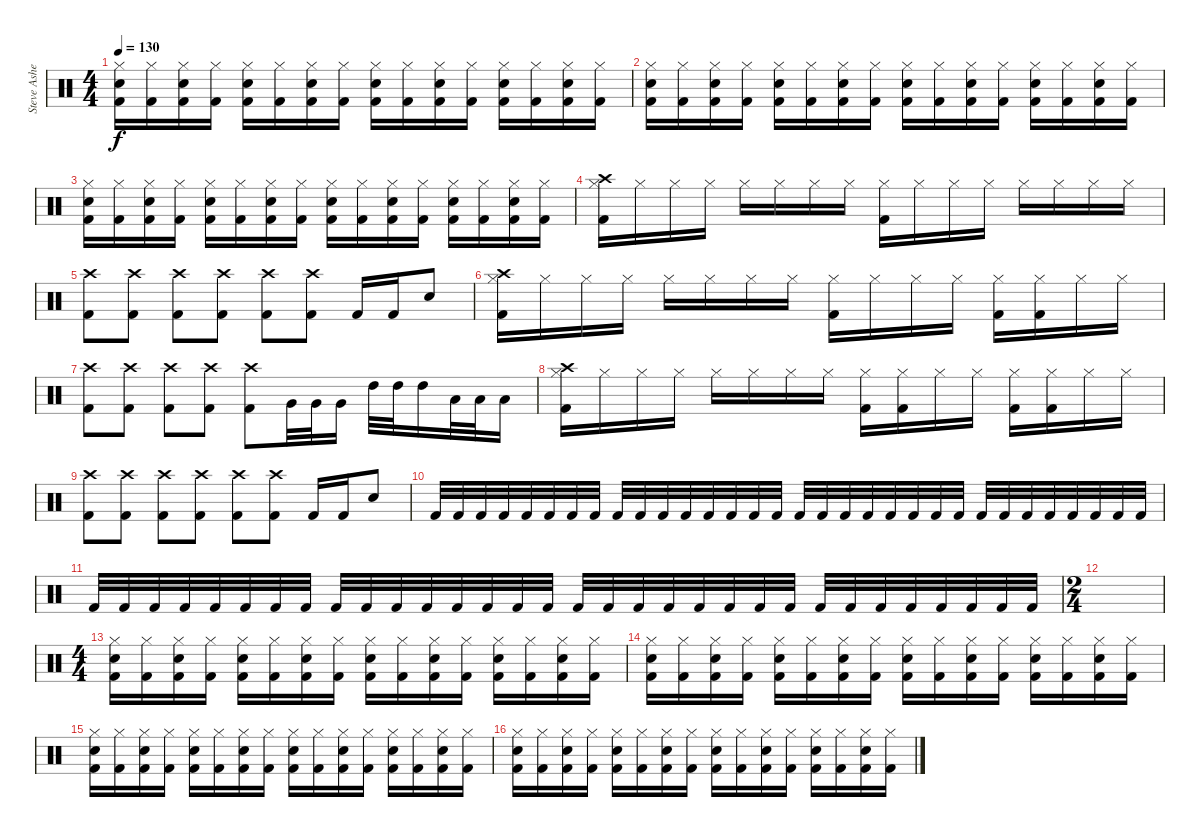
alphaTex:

\track ("Steve Asheim" "Steve Ashe") {instrument percussion}
\staff {score}
\articulation defaults
\ts (4 4)
\tempo 130
\clef neutral
\ks c
("Kick (hit) 2" "Electric Snare (hit)" "Hi-Hat (closed)").16{dy f} ("Kick (hit) 2" "Hi-Hat (closed)").16 ("Kick (hit) 2" "Electric Snare (hit)" "Hi-Hat (closed)").16 ("Kick (hit) 2" "Hi-Hat (closed)").16 ("Kick (hit) 2" "Electric Snare (hit)" "Hi-Hat (closed)").16 ("Kick (hit) 2" "Hi-Hat (closed)").16 ("Kick (hit) 2" "Electric Snare (hit)" "Hi-Hat (closed)").16 ("Kick (hit) 2" "Hi-Hat (closed)").16 ("Kick (hit) 2" "Electric Snare (hit)" "Hi-Hat (closed)").16 ("Kick (hit) 2" "Hi-Hat (closed)").16 ("Kick (hit) 2" "Electric Snare (hit)" "Hi-Hat (closed)").16 ("Kick (hit) 2" "Hi-Hat (closed)").16 ("Kick (hit) 2" "Electric Snare (hit)" "Hi-Hat (closed)").16 ("Kick (hit) 2" "Hi-Hat (closed)").16 ("Kick (hit) 2" "Electric Snare (hit)" "Hi-Hat (closed)").16 ("Kick (hit) 2" "Hi-Hat (closed)").16 |
("Kick (hit) 2" "Electric Snare (hit)" "Hi-Hat (closed)").16 ("Kick (hit) 2" "Hi-Hat (closed)").16 ("Kick (hit) 2" "Electric Snare (hit)" "Hi-Hat (closed)").16 ("Kick (hit) 2" "Hi-Hat (closed)").16 ("Kick (hit) 2" "Electric Snare (hit)" "Hi-Hat (closed)").16 ("Kick (hit) 2" "Hi-Hat (closed)").16 ("Kick (hit) 2" "Electric Snare (hit)" "Hi-Hat (closed)").16 ("Kick (hit) 2" "Hi-Hat (closed)").16 ("Kick (hit) 2" "Electric Snare (hit)" "Hi-Hat (closed)").16 ("Kick (hit) 2" "Hi-Hat (closed)").16 ("Kick (hit) 2" "Electric Snare (hit)" "Hi-Hat (closed)").16 ("Kick (hit) 2" "Hi-Hat (closed)").16 ("Kick (hit) 2" "Electric Snare (hit)" "Hi-Hat (closed)").16 ("Kick (hit) 2" "Hi-Hat (closed)").16 ("Kick (hit) 2" "Electric Snare (hit)" "Hi-Hat (closed)").16 ("Kick (hit) 2" "Hi-Hat (closed)").16 |
("Kick (hit) 2" "Electric Snare (hit)" "Hi-Hat (closed)").16 ("Kick (hit) 2" "Hi-Hat (closed)").16 ("Kick (hit) 2" "Electric Snare (hit)" "Hi-Hat (closed)").16 ("Kick (hit) 2" "Hi-Hat (closed)").16 ("Kick (hit) 2" "Electric Snare (hit)" "Hi-Hat (closed)").16 ("Kick (hit) 2" "Hi-Hat (closed)").16 ("Kick (hit) 2" "Electric Snare (hit)" "Hi-Hat (closed)").16 ("Kick (hit) 2" "Hi-Hat (closed)").16 ("Kick (hit) 2" "Electric Snare (hit)" "Hi-Hat (closed)").16 ("Kick (hit) 2" "Hi-Hat (closed)").16 ("Kick (hit) 2" "Electric Snare (hit)" "Hi-Hat (closed)").16 ("Kick (hit) 2" "Hi-Hat (closed)").16 ("Kick (hit) 2" "Electric Snare (hit)" "Hi-Hat (closed)").16 ("Kick (hit) 2" "Hi-Hat (closed)").16 ("Kick (hit) 2" "Electric Snare (hit)" "Hi-Hat (closed)").16 ("Kick (hit) 2" "Hi-Hat (closed)").16 |
("Kick (hit) 2" "Hi-Hat (closed)" "Crash high (hit)").16 "Hi-Hat (closed)".16 "Hi-Hat (closed)".16 "Hi-Hat (closed)".16 "Hi-Hat (closed)".16 "Hi-Hat (closed)".16 "Hi-Hat (closed)".16 "Hi-Hat (closed)".16 ("Kick (hit) 2" "Hi-Hat (closed)").16 "Hi-Hat (closed)".16 "Hi-Hat (closed)".16 "Hi-Hat (closed)".16 "Hi-Hat (closed)".16 "Hi-Hat (closed)".16 "Hi-Hat (closed)".16 "Hi-Hat (closed)".16 |
("Kick (hit) 2" "Crash high (hit)").8 ("Kick (hit) 2" "Crash high (hit)").8 ("Kick (hit) 2" "Crash high (hit)").8 ("Kick (hit) 2" "Crash high (hit)").8 ("Kick (hit) 2" "Crash high (hit)").8 ("Kick (hit) 2" "Crash high (hit)").8 "Kick (hit) 2".16 "Kick (hit) 2".16 "Electric Snare (hit)".8 |
("Kick (hit) 2" "Hi-Hat (closed)" "Crash high (hit)").16 "Hi-Hat (closed)".16 "Hi-Hat (closed)".16 "Hi-Hat (closed)".16 "Hi-Hat (closed)".16 "Hi-Hat (closed)".16 "Hi-Hat (closed)".16 "Hi-Hat (closed)".16 ("Kick (hit) 2" "Hi-Hat (closed)").16 "Hi-Hat (closed)".16 "Hi-Hat (closed)".16 "Hi-Hat (closed)".16 ("Kick (hit) 2" "Hi-Hat (closed)").16 ("Kick (hit) 2" "Hi-Hat (closed)").16 "Hi-Hat (closed)".16 "Hi-Hat (closed)".16 |
("Kick (hit) 2" "Crash high (hit)").8 ("Kick (hit) 2" "Crash high (hit)").8 ("Kick (hit) 2" "Crash high (hit)").8 ("Kick (hit) 2" "Crash high (hit)").8 ("Kick (hit) 2" "Crash high (hit)").8 "Very Low Tom (hit)".32 "Very Low Tom (hit)".32 "Very Low Tom (hit)".16 "High Tom (hit)".32 "High Tom (hit)".32 "High Tom (hit)".16 "Low Floor Tom (hit)".32 "Low Floor Tom (hit)".32 "Low Floor Tom (hit)".16 |
("Kick (hit) 2" "Hi-Hat (closed)" "Crash high (hit)").16 "Hi-Hat (closed)".16 "Hi-Hat (closed)".16 "Hi-Hat (closed)".16 "Hi-Hat (closed)".16 "Hi-Hat (closed)".16 "Hi-Hat (closed)".16 "Hi-Hat (closed)".16 ("Kick (hit) 2" "Hi-Hat (closed)").16 ("Kick (hit) 2" "Hi-Hat (closed)").16 "Hi-Hat (closed)".16 "Hi-Hat (closed)".16 ("Kick (hit) 2" "Hi-Hat (closed)").16 ("Kick (hit) 2" "Hi-Hat (closed)").16 "Hi-Hat (closed)".16 "Hi-Hat (closed)".16 |
("Kick (hit) 2" "Crash high (hit)").8 ("Kick (hit) 2" "Crash high (hit)").8 ("Kick (hit) 2" "Crash high (hit)").8 ("Kick (hit) 2" "Crash high (hit)").8 ("Kick (hit) 2" "Crash high (hit)").8 ("Kick (hit) 2" "Crash high (hit)").8 "Kick (hit) 2".16 "Kick (hit) 2".16 "Electric Snare (hit)".8 |
"Kick (hit) 2".32 "Kick (hit) 2".32 "Kick (hit) 2".32 "Kick (hit) 2".32 "Kick (hit) 2".32 "Kick (hit) 2".32 "Kick (hit) 2".32 "Kick (hit) 2".32 "Kick (hit) 2".32 "Kick (hit) 2".32 "Kick (hit) 2".32 "Kick (hit) 2".32 "Kick (hit) 2".32 "Kick (hit) 2".32 "Kick (hit) 2".32 "Kick (hit) 2".32 "Kick (hit) 2".32 "Kick (hit) 2".32 "Kick (hit) 2".32 "Kick (hit) 2".32 "Kick (hit) 2".32 "Kick (hit) 2".32 "Kick (hit) 2".32 "Kick (hit) 2".32 "Kick (hit) 2".32 "Kick (hit) 2".32 "Kick (hit) 2".32 "Kick (hit) 2".32 "Kick (hit) 2".32 "Kick (hit) 2".32 "Kick (hit) 2".32 "Kick (hit) 2".32 |
"Kick (hit) 2".32 "Kick (hit) 2".32 "Kick (hit) 2".32 "Kick (hit) 2".32 "Kick (hit) 2".32 "Kick (hit) 2".32 "Kick (hit) 2".32 "Kick (hit) 2".32 "Kick (hit) 2".32 "Kick (hit) 2".32 "Kick (hit) 2".32 "Kick (hit) 2".32 "Kick (hit) 2".32 "Kick (hit) 2".32 "Kick (hit) 2".32 "Kick (hit) 2".32 "Kick (hit) 2".32 "Kick (hit) 2".32 "Kick (hit) 2".32 "Kick (hit) 2".32 "Kick (hit) 2".32 "Kick (hit) 2".32 "Kick (hit) 2".32 "Kick (hit) 2".32 "Kick (hit) 2".32 "Kick (hit) 2".32 "Kick (hit) 2".32 "Kick (hit) 2".32 "Kick (hit) 2".32 "Kick (hit) 2".32 "Kick (hit) 2".32 "Kick (hit) 2".32 |
\ts (2 4)
|
\ts (4 4)
("Kick (hit) 2" "Electric Snare (hit)" "Hi-Hat (closed)").16 ("Kick (hit) 2" "Hi-Hat (closed)").16 ("Kick (hit) 2" "Electric Snare (hit)" "Hi-Hat (closed)").16 ("Kick (hit) 2" "Hi-Hat (closed)").16 ("Kick (hit) 2" "Electric Snare (hit)" "Hi-Hat (closed)").16 ("Kick (hit) 2" "Hi-Hat (closed)").16 ("Kick (hit) 2" "Electric Snare (hit)" "Hi-Hat (closed)").16 ("Kick (hit) 2" "Hi-Hat (closed)").16 ("Kick (hit) 2" "Electric Snare (hit)" "Hi-Hat (closed)").16 ("Kick (hit) 2" "Hi-Hat (closed)").16 ("Kick (hit) 2" "Electric Snare (hit)" "Hi-Hat (closed)").16 ("Kick (hit) 2" "Hi-Hat (closed)").16 ("Kick (hit) 2" "Electric Snare (hit)" "Hi-Hat (closed)").16 ("Kick (hit) 2" "Hi-Hat (closed)").16 ("Kick (hit) 2" "Electric Snare (hit)" "Hi-Hat (closed)").16 ("Kick (hit) 2" "Hi-Hat (closed)").16 |
("Kick (hit) 2" "Electric Snare (hit)" "Hi-Hat (closed)").16 ("Kick (hit) 2" "Hi-Hat (closed)").16 ("Kick (hit) 2" "Electric Snare (hit)" "Hi-Hat (closed)").16 ("Kick (hit) 2" "Hi-Hat (closed)").16 ("Kick (hit) 2" "Electric Snare (hit)" "Hi-Hat (closed)").16 ("Kick (hit) 2" "Hi-Hat (closed)").16 ("Kick (hit) 2" "Electric Snare (hit)" "Hi-Hat (closed)").16 ("Kick (hit) 2" "Hi-Hat (closed)").16 ("Kick (hit) 2" "Electric Snare (hit)" "Hi-Hat (closed)").16 ("Kick (hit) 2" "Hi-Hat (closed)").16 ("Kick (hit) 2" "Electric Snare (hit)" "Hi-Hat (closed)").16 ("Kick (hit) 2" "Hi-Hat (closed)").16 ("Kick (hit) 2" "Electric Snare (hit)" "Hi-Hat (closed)").16 ("Kick (hit) 2" "Hi-Hat (closed)").16 ("Kick (hit) 2" "Electric Snare (hit)" "Hi-Hat (closed)").16 ("Kick (hit) 2" "Hi-Hat (closed)").16 |
("Kick (hit) 2" "Electric Snare (hit)" "Hi-Hat (closed)").16 ("Kick (hit) 2" "Hi-Hat (closed)").16 ("Kick (hit) 2" "Electric Snare (hit)" "Hi-Hat (closed)").16 ("Kick (hit) 2" "Hi-Hat (closed)").16 ("Kick (hit) 2" "Electric Snare (hit)" "Hi-Hat (closed)").16 ("Kick (hit) 2" "Hi-Hat (closed)").16 ("Kick (hit) 2" "Electric Snare (hit)" "Hi-Hat (closed)").16 ("Kick (hit) 2" "Hi-Hat (closed)").16 ("Kick (hit) 2" "Electric Snare (hit)" "Hi-Hat (closed)").16 ("Kick (hit) 2" "Hi-Hat (closed)").16 ("Kick (hit) 2" "Electric Snare (hit)" "Hi-Hat (closed)").16 ("Kick (hit) 2" "Hi-Hat (closed)").16 ("Kick (hit) 2" "Electric Snare (hit)" "Hi-Hat (closed)").16 ("Kick (hit) 2" "Hi-Hat (closed)").16 ("Kick (hit) 2" "Electric Snare (hit)" "Hi-Hat (closed)").16 ("Kick (hit) 2" "Hi-Hat (closed)").16 |
("Kick (hit) 2" "Electric Snare (hit)" "Hi-Hat (closed)").16 ("Kick (hit) 2" "Hi-Hat (closed)").16 ("Kick (hit) 2" "Electric Snare (hit)" "Hi-Hat (closed)").16 ("Kick (hit) 2" "Hi-Hat (closed)").16 ("Kick (hit) 2" "Electric Snare (hit)" "Hi-Hat (closed)").16 ("Kick (hit) 2" "Hi-Hat (closed)").16 ("Kick (hit) 2" "Electric Snare (hit)" "Hi-Hat (closed)").16 ("Kick (hit) 2" "Hi-Hat (closed)").16 ("Kick (hit) 2" "Electric Snare (hit)" "Hi-Hat (closed)").16 ("Kick (hit) 2" "Hi-Hat (closed)").16 ("Kick (hit) 2" "Electric Snare (hit)" "Hi-Hat (closed)").16 ("Kick (hit) 2" "Hi-Hat (closed)").16 ("Kick (hit) 2" "Electric Snare (hit)" "Hi-Hat (closed)").16 ("Kick (hit) 2" "Hi-Hat (closed)").16 ("Kick (hit) 2" "Electric Snare (hit)" "Hi-Hat (closed)").16 ("Kick (hit) 2" "Hi-Hat (closed)").16
